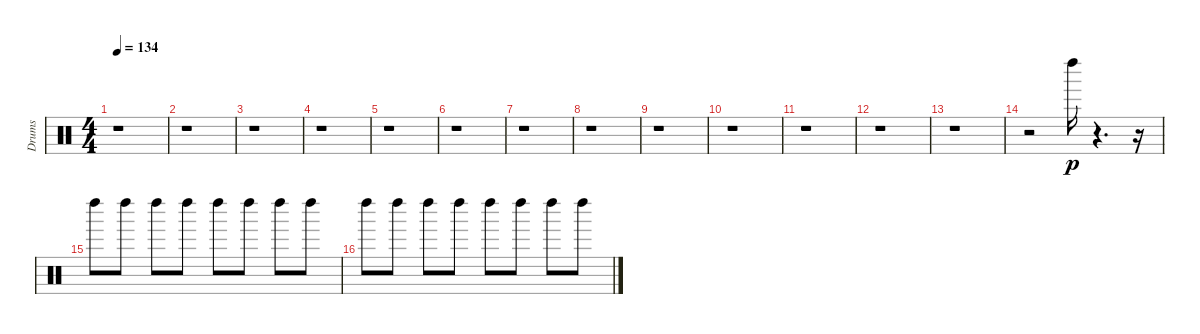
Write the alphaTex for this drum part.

\track ("Drums" "Drums") {instrument percussion}
\staff {score}
\articulation defaults
\ts (4 4)
\tempo 134
\clef neutral
\ks c
r.1{dy p} |
r.1 |
r.1 |
r.1 |
r.1 |
r.1 |
r.1 |
r.1 |
r.1 |
r.1 |
r.1 |
r.1 |
r.1 |
r.2 "Left Maraca (hit)".16 r.4{d} r.16 |
"Left Maraca (hit)".8 "Left Maraca (hit)".8 "Left Maraca (hit)".8 "Left Maraca (hit)".8 "Left Maraca (hit)".8 "Left Maraca (hit)".8 "Left Maraca (hit)".8 "Left Maraca (hit)".8 |
"Left Maraca (hit)".8 "Left Maraca (hit)".8 "Left Maraca (hit)".8 "Left Maraca (hit)".8 "Left Maraca (hit)".8 "Left Maraca (hit)".8 "Left Maraca (hit)".8 "Left Maraca (hit)".8
